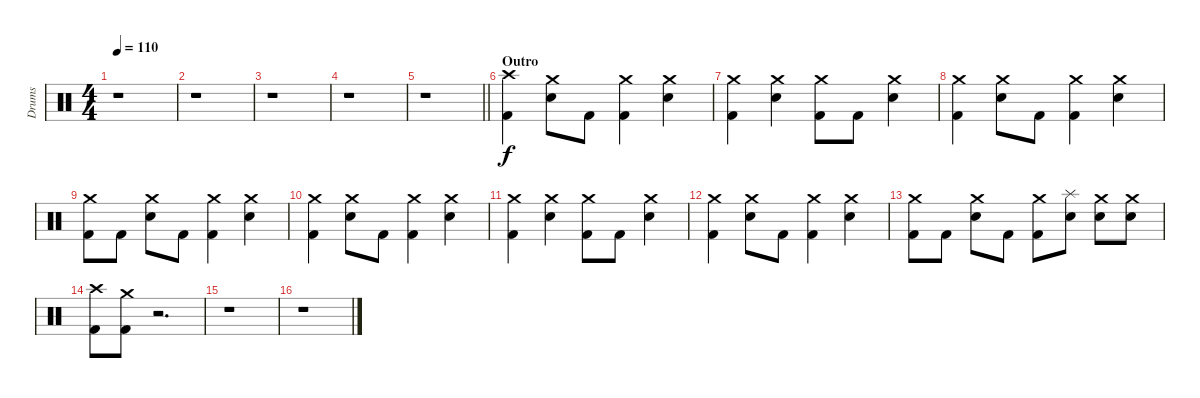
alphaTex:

\track ("Drums" "Drums") {instrument percussion}
\staff {score}
\articulation defaults
\ts (4 4)
\tempo 110
\clef neutral
\ks c
r.1{dy f} |
r.1 |
r.1 |
r.1 |
\barLineRight lightlight
r.1 |
\section ("" "Outro")
("Crash high (hit)" "Kick (hit) 2").4 ("Crash medium (hit)" "Snare (hit) 2").8 "Kick (hit) 2".8 ("Crash medium (hit)" "Kick (hit) 2").4 ("Crash medium (hit)" "Snare (hit) 2").4 |
("Crash medium (hit)" "Kick (hit) 2").4 ("Crash medium (hit)" "Snare (hit) 2").4 ("Crash medium (hit)" "Kick (hit) 2").8 "Kick (hit) 2".8 ("Crash medium (hit)" "Snare (hit) 2").4 |
("Crash medium (hit)" "Kick (hit) 2").4 ("Crash medium (hit)" "Snare (hit) 2").8 "Kick (hit) 2".8 ("Crash medium (hit)" "Kick (hit) 2").4 ("Crash medium (hit)" "Snare (hit) 2").4 |
("Crash medium (hit)" "Kick (hit) 2").8 "Kick (hit) 2".8 ("Crash medium (hit)" "Snare (hit) 2").8 "Kick (hit) 2".8 ("Crash medium (hit)" "Kick (hit) 2").4 ("Crash medium (hit)" "Snare (hit) 2").4 |
("Crash medium (hit)" "Kick (hit) 2").4 ("Crash medium (hit)" "Snare (hit) 2").8 "Kick (hit) 2".8 ("Crash medium (hit)" "Kick (hit) 2").4 ("Crash medium (hit)" "Snare (hit) 2").4 |
("Crash medium (hit)" "Kick (hit) 2").4 ("Crash medium (hit)" "Snare (hit) 2").4 ("Crash medium (hit)" "Kick (hit) 2").8 "Kick (hit) 2".8 ("Crash medium (hit)" "Snare (hit) 2").4 |
("Crash medium (hit)" "Kick (hit) 2").4 ("Crash medium (hit)" "Snare (hit) 2").8 "Kick (hit) 2".8 ("Crash medium (hit)" "Kick (hit) 2").4 ("Crash medium (hit)" "Snare (hit) 2").4 |
("Crash medium (hit)" "Kick (hit) 2").8 "Kick (hit) 2".8 ("Crash medium (hit)" "Snare (hit) 2").8 "Kick (hit) 2".8 ("Crash medium (hit)" "Kick (hit) 2").8 ("Splash (hit)" "Snare (hit) 2").8 ("Crash medium (hit)" "Snare (hit) 2").8 ("Crash medium (hit)" "Snare (hit) 2").8 |
("Crash high (hit)" "Kick (hit) 2").8 ("Crash medium (hit)" "Kick (hit) 2").8 r.2{d} |
r.1 |
r.1
